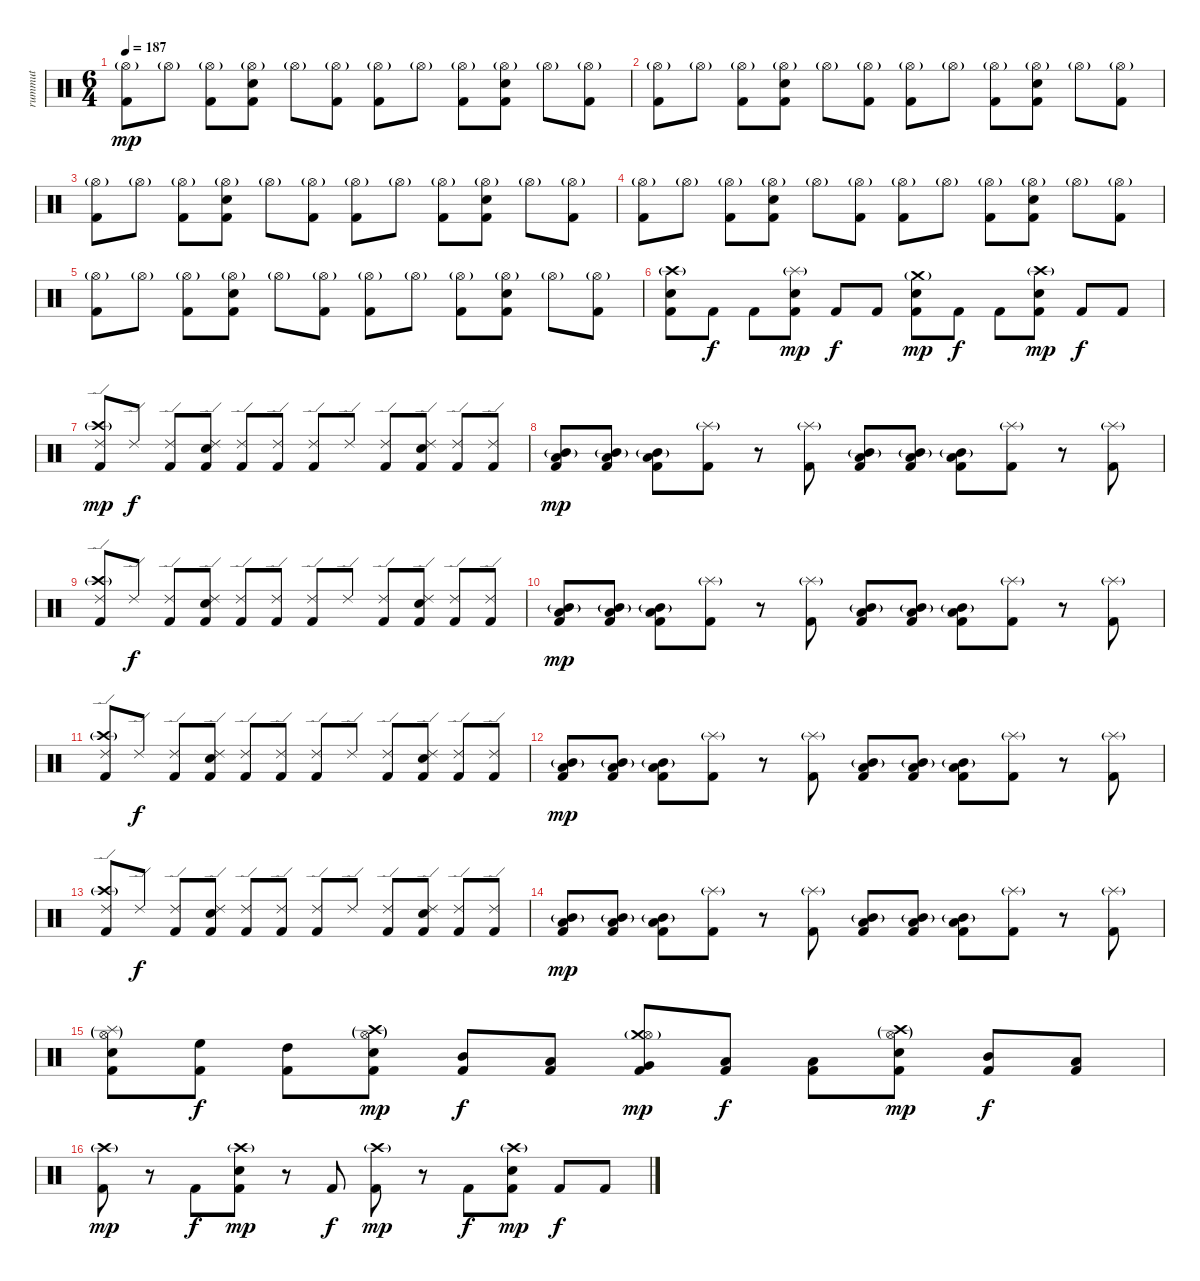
\track ("rummut" "rummut") {instrument percussion}
\staff {score}
\articulation defaults
\ts (6 4)
\tempo 187
\clef neutral
\ks c
("Kick (hit) 2" "Hi-Hat (open)"{g}).8{dy mp} "Hi-Hat (open)"{g}.8 ("Kick (hit) 2" "Hi-Hat (open)"{g}).8 ("Kick (hit) 2" "Hi-Hat (open)"{g} "Snare (hit) 2").8 "Hi-Hat (open)"{g}.8 ("Kick (hit) 2" "Hi-Hat (open)"{g}).8 ("Kick (hit) 2" "Hi-Hat (open)"{g}).8 "Hi-Hat (open)"{g}.8 ("Kick (hit) 2" "Hi-Hat (open)"{g}).8 ("Kick (hit) 2" "Hi-Hat (open)"{g} "Snare (hit) 2").8 "Hi-Hat (open)"{g}.8 ("Kick (hit) 2" "Hi-Hat (open)"{g}).8 |
("Kick (hit) 2" "Hi-Hat (open)"{g}).8 "Hi-Hat (open)"{g}.8 ("Kick (hit) 2" "Hi-Hat (open)"{g}).8 ("Kick (hit) 2" "Hi-Hat (open)"{g} "Snare (hit) 2").8 "Hi-Hat (open)"{g}.8 ("Kick (hit) 2" "Hi-Hat (open)"{g}).8 ("Kick (hit) 2" "Hi-Hat (open)"{g}).8 "Hi-Hat (open)"{g}.8 ("Kick (hit) 2" "Hi-Hat (open)"{g}).8 ("Kick (hit) 2" "Hi-Hat (open)"{g} "Snare (hit) 2").8 "Hi-Hat (open)"{g}.8 ("Kick (hit) 2" "Hi-Hat (open)"{g}).8 |
("Kick (hit) 2" "Hi-Hat (open)"{g}).8 "Hi-Hat (open)"{g}.8 ("Kick (hit) 2" "Hi-Hat (open)"{g}).8 ("Kick (hit) 2" "Hi-Hat (open)"{g} "Snare (hit) 2").8 "Hi-Hat (open)"{g}.8 ("Kick (hit) 2" "Hi-Hat (open)"{g}).8 ("Kick (hit) 2" "Hi-Hat (open)"{g}).8 "Hi-Hat (open)"{g}.8 ("Kick (hit) 2" "Hi-Hat (open)"{g}).8 ("Kick (hit) 2" "Hi-Hat (open)"{g} "Snare (hit) 2").8 "Hi-Hat (open)"{g}.8 ("Kick (hit) 2" "Hi-Hat (open)"{g}).8 |
("Kick (hit) 2" "Hi-Hat (open)"{g}).8 "Hi-Hat (open)"{g}.8 ("Kick (hit) 2" "Hi-Hat (open)"{g}).8 ("Kick (hit) 2" "Hi-Hat (open)"{g} "Snare (hit) 2").8 "Hi-Hat (open)"{g}.8 ("Kick (hit) 2" "Hi-Hat (open)"{g}).8 ("Kick (hit) 2" "Hi-Hat (open)"{g}).8 "Hi-Hat (open)"{g}.8 ("Kick (hit) 2" "Hi-Hat (open)"{g}).8 ("Kick (hit) 2" "Hi-Hat (open)"{g} "Snare (hit) 2").8 "Hi-Hat (open)"{g}.8 ("Kick (hit) 2" "Hi-Hat (open)"{g}).8 |
("Kick (hit) 2" "Hi-Hat (open)"{g}).8 "Hi-Hat (open)"{g}.8 ("Kick (hit) 2" "Hi-Hat (open)"{g}).8 ("Kick (hit) 2" "Hi-Hat (open)"{g} "Snare (hit) 2").8 "Hi-Hat (open)"{g}.8 ("Kick (hit) 2" "Hi-Hat (open)"{g}).8 ("Kick (hit) 2" "Hi-Hat (open)"{g}).8 "Hi-Hat (open)"{g}.8 ("Kick (hit) 2" "Hi-Hat (open)"{g}).8 ("Kick (hit) 2" "Hi-Hat (open)"{g} "Snare (hit) 2").8 "Hi-Hat (open)"{g}.8 ("Kick (hit) 2" "Hi-Hat (open)"{g}).8 |
("Kick (hit) 2" "Crash high (hit)"{g} "Snare (hit) 2").8 "Kick (hit) 2".8{dy f} "Kick (hit) 2".8 ("Kick (hit) 2" "Snare (hit) 2" "Splash (hit)"{g}).8{dy mp} "Kick (hit) 2".8{dy f} "Kick (hit) 2".8 ("Kick (hit) 2" "Snare (hit) 2" "Crash medium (hit)"{g}).8{dy mp} "Kick (hit) 2".8{dy f} "Kick (hit) 2".8 ("Kick (hit) 2" "Snare (hit) 2" "Crash high (hit)"{g}).8{dy mp} "Kick (hit) 2".8{dy f} "Kick (hit) 2".8 |
("Kick (hit) 2" "Ride (edge) 2" "Crash high (hit)"{g}).8{dy mp} "Ride (edge) 2".8{dy f} ("Kick (hit) 2" "Ride (edge) 2").8 ("Kick (hit) 2" "Ride (edge) 2" "Snare (hit) 2").8 ("Kick (hit) 2" "Ride (edge) 2").8 ("Kick (hit) 2" "Ride (edge) 2").8 ("Kick (hit) 2" "Ride (edge) 2").8 "Ride (edge) 2".8 ("Kick (hit) 2" "Ride (edge) 2").8 ("Kick (hit) 2" "Ride (edge) 2" "Snare (hit) 2").8 ("Kick (hit) 2" "Ride (edge) 2").8 ("Kick (hit) 2" "Ride (edge) 2").8 |
("Kick (hit) 2" "Low Tom (hit)" "Mid Tom (hit)"{g}).8{dy mp} ("Kick (hit) 2" "Low Tom (hit)" "Mid Tom (hit)"{g}).8 ("Kick (hit) 2" "Low Tom (hit)" "Mid Tom (hit)"{g}).8 ("Kick (hit) 2" "Splash (hit)"{g}).8 r.8 ("Kick (hit) 2" "Splash (hit)"{g}).8 ("Kick (hit) 2" "Low Tom (hit)" "Mid Tom (hit)"{g}).8 ("Kick (hit) 2" "Low Tom (hit)" "Mid Tom (hit)"{g}).8 ("Kick (hit) 2" "Low Tom (hit)" "Mid Tom (hit)"{g}).8 ("Kick (hit) 2" "Splash (hit)"{g}).8 r.8 ("Kick (hit) 2" "Splash (hit)"{g}).8 |
("Kick (hit) 2" "Ride (edge) 2" "Crash high (hit)"{g}).8 "Ride (edge) 2".8{dy f} ("Kick (hit) 2" "Ride (edge) 2").8 ("Kick (hit) 2" "Ride (edge) 2" "Snare (hit) 2").8 ("Kick (hit) 2" "Ride (edge) 2").8 ("Kick (hit) 2" "Ride (edge) 2").8 ("Kick (hit) 2" "Ride (edge) 2").8 "Ride (edge) 2".8 ("Kick (hit) 2" "Ride (edge) 2").8 ("Kick (hit) 2" "Ride (edge) 2" "Snare (hit) 2").8 ("Kick (hit) 2" "Ride (edge) 2").8 ("Kick (hit) 2" "Ride (edge) 2").8 |
("Kick (hit) 2" "Low Tom (hit)" "Mid Tom (hit)"{g}).8{dy mp} ("Kick (hit) 2" "Low Tom (hit)" "Mid Tom (hit)"{g}).8 ("Kick (hit) 2" "Low Tom (hit)" "Mid Tom (hit)"{g}).8 ("Kick (hit) 2" "Splash (hit)"{g}).8 r.8 ("Kick (hit) 2" "Splash (hit)"{g}).8 ("Kick (hit) 2" "Low Tom (hit)" "Mid Tom (hit)"{g}).8 ("Kick (hit) 2" "Low Tom (hit)" "Mid Tom (hit)"{g}).8 ("Kick (hit) 2" "Low Tom (hit)" "Mid Tom (hit)"{g}).8 ("Kick (hit) 2" "Splash (hit)"{g}).8 r.8 ("Kick (hit) 2" "Splash (hit)"{g}).8 |
("Kick (hit) 2" "Ride (edge) 2" "Crash high (hit)"{g}).8 "Ride (edge) 2".8{dy f} ("Kick (hit) 2" "Ride (edge) 2").8 ("Kick (hit) 2" "Ride (edge) 2" "Snare (hit) 2").8 ("Kick (hit) 2" "Ride (edge) 2").8 ("Kick (hit) 2" "Ride (edge) 2").8 ("Kick (hit) 2" "Ride (edge) 2").8 "Ride (edge) 2".8 ("Kick (hit) 2" "Ride (edge) 2").8 ("Kick (hit) 2" "Ride (edge) 2" "Snare (hit) 2").8 ("Kick (hit) 2" "Ride (edge) 2").8 ("Kick (hit) 2" "Ride (edge) 2").8 |
("Kick (hit) 2" "Low Tom (hit)" "Mid Tom (hit)"{g}).8{dy mp} ("Kick (hit) 2" "Low Tom (hit)" "Mid Tom (hit)"{g}).8 ("Kick (hit) 2" "Low Tom (hit)" "Mid Tom (hit)"{g}).8 ("Kick (hit) 2" "Splash (hit)"{g}).8 r.8 ("Kick (hit) 2" "Splash (hit)"{g}).8 ("Kick (hit) 2" "Low Tom (hit)" "Mid Tom (hit)"{g}).8 ("Kick (hit) 2" "Low Tom (hit)" "Mid Tom (hit)"{g}).8 ("Kick (hit) 2" "Low Tom (hit)" "Mid Tom (hit)"{g}).8 ("Kick (hit) 2" "Splash (hit)"{g}).8 r.8 ("Kick (hit) 2" "Splash (hit)"{g}).8 |
("Kick (hit) 2" "Ride (edge) 2" "Crash high (hit)"{g}).8 "Ride (edge) 2".8{dy f} ("Kick (hit) 2" "Ride (edge) 2").8 ("Kick (hit) 2" "Ride (edge) 2" "Snare (hit) 2").8 ("Kick (hit) 2" "Ride (edge) 2").8 ("Kick (hit) 2" "Ride (edge) 2").8 ("Kick (hit) 2" "Ride (edge) 2").8 "Ride (edge) 2".8 ("Kick (hit) 2" "Ride (edge) 2").8 ("Kick (hit) 2" "Ride (edge) 2" "Snare (hit) 2").8 ("Kick (hit) 2" "Ride (edge) 2").8 ("Kick (hit) 2" "Ride (edge) 2").8 |
("Kick (hit) 2" "Low Tom (hit)" "Mid Tom (hit)"{g}).8{dy mp} ("Kick (hit) 2" "Low Tom (hit)" "Mid Tom (hit)"{g}).8 ("Kick (hit) 2" "Low Tom (hit)" "Mid Tom (hit)"{g}).8 ("Kick (hit) 2" "Splash (hit)"{g}).8 r.8 ("Kick (hit) 2" "Splash (hit)"{g}).8 ("Kick (hit) 2" "Low Tom (hit)" "Mid Tom (hit)"{g}).8 ("Kick (hit) 2" "Low Tom (hit)" "Mid Tom (hit)"{g}).8 ("Kick (hit) 2" "Low Tom (hit)" "Mid Tom (hit)"{g}).8 ("Kick (hit) 2" "Splash (hit)"{g}).8 r.8 ("Kick (hit) 2" "Splash (hit)"{g}).8 |
("Kick (hit) 2" "Snare (hit) 2" "Splash (hit)"{g} "Hi-Hat (open)"{g}).8 ("Kick (hit) 2" "High Floor Tom (hit)").8{dy f} ("Kick (hit) 2" "High Tom (hit)").8 ("Kick (hit) 2" "Snare (hit) 2" "Crash high (hit)"{g} "Hi-Hat (open)"{g}).8{dy mp} ("Kick (hit) 2" "Mid Tom (hit)").8{dy f} ("Kick (hit) 2" "Low Tom (hit)").8 ("Kick (hit) 2" "Very Low Tom (hit)" "Crash medium (hit)"{g} "Hi-Hat (open)"{g}).8{dy mp} ("Kick (hit) 2" "Low Floor Tom (hit)").8{dy f} ("Kick (hit) 2" "Low Tom (hit)").8 ("Kick (hit) 2" "Snare (hit) 2" "Crash high (hit)"{g} "Hi-Hat (open)"{g}).8{dy mp} ("Kick (hit) 2" "Mid Tom (hit)").8{dy f} ("Kick (hit) 2" "Low Tom (hit)").8 |
("Kick (hit) 2" "Crash high (hit)"{g}).8{dy mp} r.8 "Kick (hit) 2".8{dy f} ("Kick (hit) 2" "Crash high (hit)"{g} "Snare (hit) 2").8{dy mp} r.8 "Kick (hit) 2".8{dy f} ("Kick (hit) 2" "Crash high (hit)"{g}).8{dy mp} r.8 "Kick (hit) 2".8{dy f} ("Kick (hit) 2" "Crash high (hit)"{g} "Snare (hit) 2").8{dy mp} "Kick (hit) 2".8{dy f} "Kick (hit) 2".8
